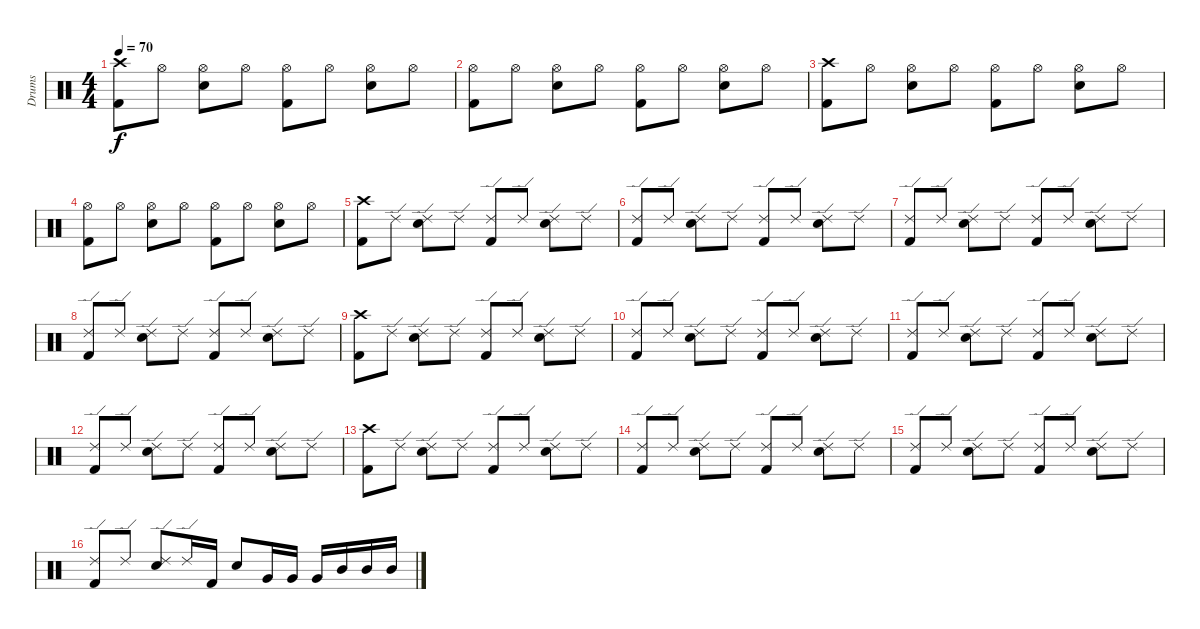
\track ("Drums" "Drums") {instrument percussion}
\staff {score}
\articulation defaults
\ts (4 4)
\tempo 70
\clef neutral
\ks c
("Kick (hit) 2" "Crash high (hit)").8{dy f} "Hi-Hat (open)".8 ("Hi-Hat (open)" "Electric Snare (hit)").8 "Hi-Hat (open)".8 ("Hi-Hat (open)" "Kick (hit) 2").8 "Hi-Hat (open)".8 ("Hi-Hat (open)" "Electric Snare (hit)").8 "Hi-Hat (open)".8 |
("Kick (hit) 2" "Hi-Hat (open)").8 "Hi-Hat (open)".8 ("Hi-Hat (open)" "Electric Snare (hit)").8 "Hi-Hat (open)".8 ("Hi-Hat (open)" "Kick (hit) 2").8 "Hi-Hat (open)".8 ("Hi-Hat (open)" "Electric Snare (hit)").8 "Hi-Hat (open)".8 |
("Kick (hit) 2" "Crash high (hit)").8 "Hi-Hat (open)".8 ("Hi-Hat (open)" "Electric Snare (hit)").8 "Hi-Hat (open)".8 ("Hi-Hat (open)" "Kick (hit) 2").8 "Hi-Hat (open)".8 ("Hi-Hat (open)" "Electric Snare (hit)").8 "Hi-Hat (open)".8 |
("Kick (hit) 2" "Hi-Hat (open)").8 "Hi-Hat (open)".8 ("Hi-Hat (open)" "Electric Snare (hit)").8 "Hi-Hat (open)".8 ("Hi-Hat (open)" "Kick (hit) 2").8 "Hi-Hat (open)".8 ("Hi-Hat (open)" "Electric Snare (hit)").8 "Hi-Hat (open)".8 |
("Crash high (hit)" "Kick (hit) 2").8 "Ride (edge) 2".8 ("Ride (edge) 2" "Electric Snare (hit)").8 "Ride (edge) 2".8 ("Ride (edge) 2" "Kick (hit) 2").8 "Ride (edge) 2".8 ("Ride (edge) 2" "Electric Snare (hit)").8 "Ride (edge) 2".8 |
("Ride (edge) 2" "Kick (hit) 2").8 "Ride (edge) 2".8 ("Ride (edge) 2" "Electric Snare (hit)").8 "Ride (edge) 2".8 ("Ride (edge) 2" "Kick (hit) 2").8 "Ride (edge) 2".8 ("Ride (edge) 2" "Electric Snare (hit)").8 "Ride (edge) 2".8 |
("Ride (edge) 2" "Kick (hit) 2").8 "Ride (edge) 2".8 ("Ride (edge) 2" "Electric Snare (hit)").8 "Ride (edge) 2".8 ("Ride (edge) 2" "Kick (hit) 2").8 "Ride (edge) 2".8 ("Ride (edge) 2" "Electric Snare (hit)").8 "Ride (edge) 2".8 |
("Ride (edge) 2" "Kick (hit) 2").8 "Ride (edge) 2".8 ("Ride (edge) 2" "Electric Snare (hit)").8 "Ride (edge) 2".8 ("Ride (edge) 2" "Kick (hit) 2").8 "Ride (edge) 2".8 ("Ride (edge) 2" "Electric Snare (hit)").8 "Ride (edge) 2".8 |
("Crash high (hit)" "Kick (hit) 2").8 "Ride (edge) 2".8 ("Ride (edge) 2" "Electric Snare (hit)").8 "Ride (edge) 2".8 ("Ride (edge) 2" "Kick (hit) 2").8 "Ride (edge) 2".8 ("Ride (edge) 2" "Electric Snare (hit)").8 "Ride (edge) 2".8 |
("Ride (edge) 2" "Kick (hit) 2").8 "Ride (edge) 2".8 ("Ride (edge) 2" "Electric Snare (hit)").8 "Ride (edge) 2".8 ("Ride (edge) 2" "Kick (hit) 2").8 "Ride (edge) 2".8 ("Ride (edge) 2" "Electric Snare (hit)").8 "Ride (edge) 2".8 |
("Ride (edge) 2" "Kick (hit) 2").8 "Ride (edge) 2".8 ("Ride (edge) 2" "Electric Snare (hit)").8 "Ride (edge) 2".8 ("Ride (edge) 2" "Kick (hit) 2").8 "Ride (edge) 2".8 ("Ride (edge) 2" "Electric Snare (hit)").8 "Ride (edge) 2".8 |
("Ride (edge) 2" "Kick (hit) 2").8 "Ride (edge) 2".8 ("Ride (edge) 2" "Electric Snare (hit)").8 "Ride (edge) 2".8 ("Ride (edge) 2" "Kick (hit) 2").8 "Ride (edge) 2".8 ("Ride (edge) 2" "Electric Snare (hit)").8 "Ride (edge) 2".8 |
("Crash high (hit)" "Kick (hit) 2").8 "Ride (edge) 2".8 ("Ride (edge) 2" "Electric Snare (hit)").8 "Ride (edge) 2".8 ("Ride (edge) 2" "Kick (hit) 2").8 "Ride (edge) 2".8 ("Ride (edge) 2" "Electric Snare (hit)").8 "Ride (edge) 2".8 |
("Ride (edge) 2" "Kick (hit) 2").8 "Ride (edge) 2".8 ("Ride (edge) 2" "Electric Snare (hit)").8 "Ride (edge) 2".8 ("Ride (edge) 2" "Kick (hit) 2").8 "Ride (edge) 2".8 ("Ride (edge) 2" "Electric Snare (hit)").8 "Ride (edge) 2".8 |
("Ride (edge) 2" "Kick (hit) 2").8 "Ride (edge) 2".8 ("Ride (edge) 2" "Electric Snare (hit)").8 "Ride (edge) 2".8 ("Ride (edge) 2" "Kick (hit) 2").8 "Ride (edge) 2".8 ("Ride (edge) 2" "Electric Snare (hit)").8 "Ride (edge) 2".8 |
("Ride (edge) 2" "Kick (hit) 2").8 "Ride (edge) 2".8 ("Ride (edge) 2" "Electric Snare (hit)").8 "Ride (edge) 2".16 "Kick (hit) 2".16 "Electric Snare (hit)".8 "Very Low Tom (hit)".16 "Very Low Tom (hit)".16 "Very Low Tom (hit)".16 "Mid Tom (hit)".16 "Mid Tom (hit)".16 "Mid Tom (hit)".16
